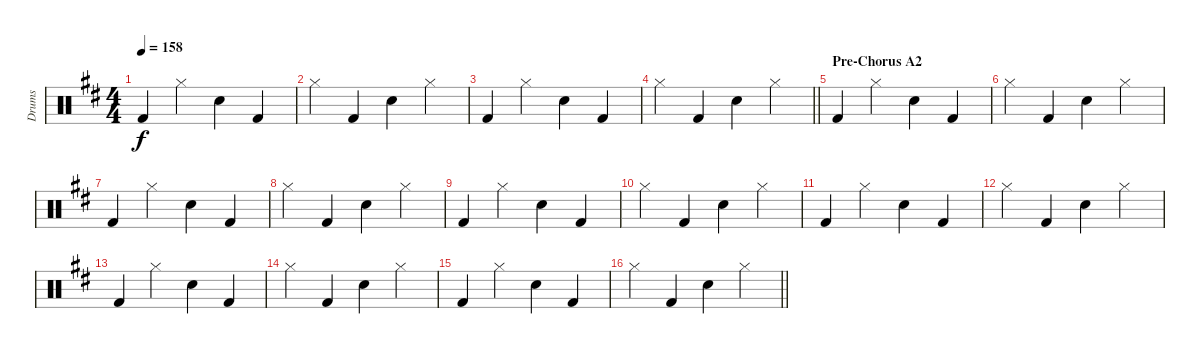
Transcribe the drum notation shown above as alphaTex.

\track ("Drums" "Drums") {instrument percussion}
\staff {score}
\articulation defaults
\ts (4 4)
\tempo 158
\clef neutral
\ks d "Kick (hit) 2".4{dy f} "Hi-Hat (closed)".4 "Snare (hit) 2".4 "Kick (hit) 2".4
|
"Hi-Hat (closed)".4 "Kick (hit) 2".4 "Snare (hit) 2".4 "Hi-Hat (closed)".4 |
"Kick (hit) 2".4 "Hi-Hat (closed)".4 "Snare (hit) 2".4 "Kick (hit) 2".4 |
\barLineRight lightlight "Hi-Hat (closed)".4 "Kick (hit) 2".4 "Snare (hit) 2".4 "Hi-Hat (closed)".4
|
\section ("" "Pre-Chorus A2")
"Kick (hit) 2".4 "Hi-Hat (closed)".4 "Snare (hit) 2".4 "Kick (hit) 2".4 |
"Hi-Hat (closed)".4 "Kick (hit) 2".4 "Snare (hit) 2".4 "Hi-Hat (closed)".4 |
"Kick (hit) 2".4 "Hi-Hat (closed)".4 "Snare (hit) 2".4 "Kick (hit) 2".4 |
"Hi-Hat (closed)".4 "Kick (hit) 2".4 "Snare (hit) 2".4 "Hi-Hat (closed)".4 |
"Kick (hit) 2".4 "Hi-Hat (closed)".4 "Snare (hit) 2".4 "Kick (hit) 2".4 |
"Hi-Hat (closed)".4 "Kick (hit) 2".4 "Snare (hit) 2".4 "Hi-Hat (closed)".4 |
"Kick (hit) 2".4 "Hi-Hat (closed)".4 "Snare (hit) 2".4 "Kick (hit) 2".4 |
"Hi-Hat (closed)".4 "Kick (hit) 2".4 "Snare (hit) 2".4 "Hi-Hat (closed)".4 |
"Kick (hit) 2".4 "Hi-Hat (closed)".4 "Snare (hit) 2".4 "Kick (hit) 2".4 |
"Hi-Hat (closed)".4 "Kick (hit) 2".4 "Snare (hit) 2".4 "Hi-Hat (closed)".4 |
"Kick (hit) 2".4 "Hi-Hat (closed)".4 "Snare (hit) 2".4 "Kick (hit) 2".4 |
\barLineRight lightlight "Hi-Hat (closed)".4 "Kick (hit) 2".4 "Snare (hit) 2".4 "Hi-Hat (closed)".4
